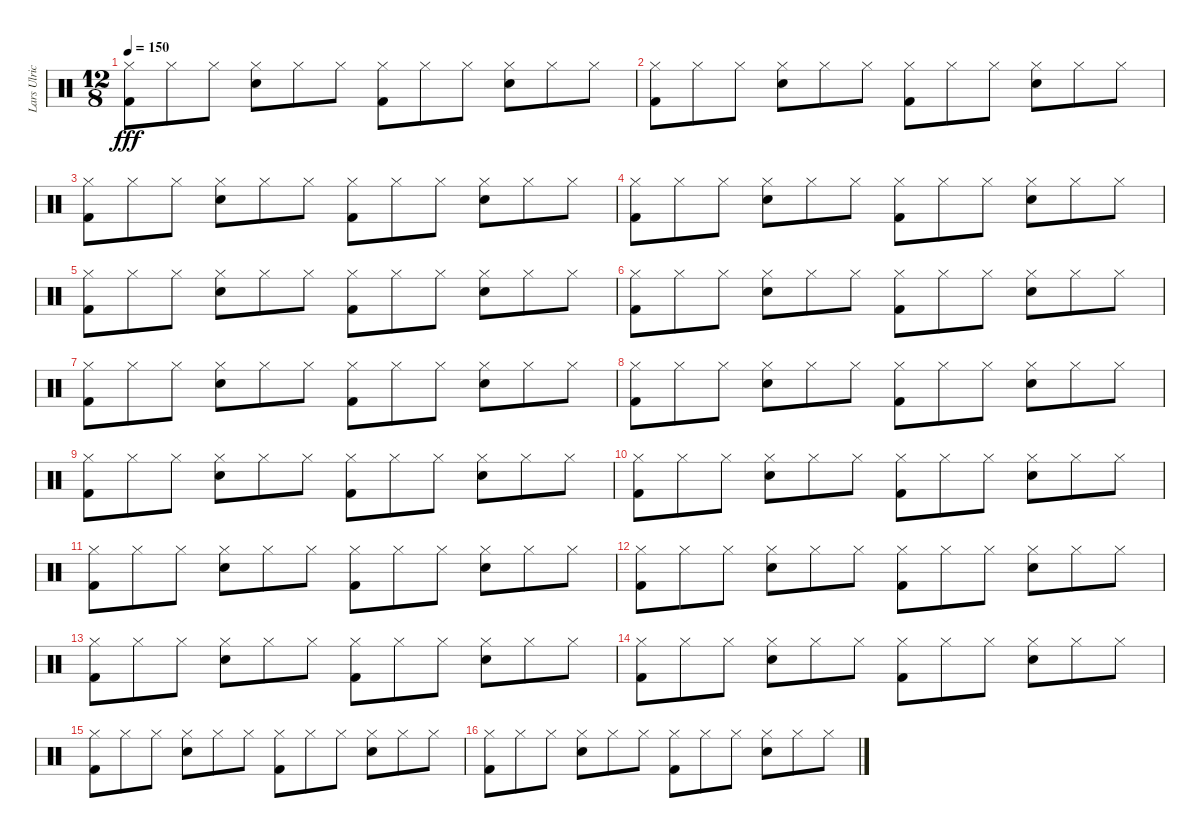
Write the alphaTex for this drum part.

\track ("Lars Ulrich (Drums)" "Lars Ulric") {instrument percussion}
\staff {score}
\articulation defaults
\ts (12 8)
\tempo 150
\clef neutral
\ks c
("Hi-Hat (closed)" "Kick (hit) 2").8{dy fff} "Hi-Hat (closed)".8 "Hi-Hat (closed)".8 ("Hi-Hat (closed)" "Electric Snare (hit)").8 "Hi-Hat (closed)".8 "Hi-Hat (closed)".8 ("Hi-Hat (closed)" "Kick (hit) 2").8 "Hi-Hat (closed)".8 "Hi-Hat (closed)".8 ("Hi-Hat (closed)" "Electric Snare (hit)").8 "Hi-Hat (closed)".8 "Hi-Hat (closed)".8 |
("Hi-Hat (closed)" "Kick (hit) 2").8 "Hi-Hat (closed)".8 "Hi-Hat (closed)".8 ("Hi-Hat (closed)" "Electric Snare (hit)").8 "Hi-Hat (closed)".8 "Hi-Hat (closed)".8 ("Hi-Hat (closed)" "Kick (hit) 2").8 "Hi-Hat (closed)".8 "Hi-Hat (closed)".8 ("Hi-Hat (closed)" "Electric Snare (hit)").8 "Hi-Hat (closed)".8 "Hi-Hat (closed)".8 |
("Hi-Hat (closed)" "Kick (hit) 2").8 "Hi-Hat (closed)".8 "Hi-Hat (closed)".8 ("Hi-Hat (closed)" "Electric Snare (hit)").8 "Hi-Hat (closed)".8 "Hi-Hat (closed)".8 ("Hi-Hat (closed)" "Kick (hit) 2").8 "Hi-Hat (closed)".8 "Hi-Hat (closed)".8 ("Hi-Hat (closed)" "Electric Snare (hit)").8 "Hi-Hat (closed)".8 "Hi-Hat (closed)".8 |
("Hi-Hat (closed)" "Kick (hit) 2").8 "Hi-Hat (closed)".8 "Hi-Hat (closed)".8 ("Hi-Hat (closed)" "Electric Snare (hit)").8 "Hi-Hat (closed)".8 "Hi-Hat (closed)".8 ("Hi-Hat (closed)" "Kick (hit) 2").8 "Hi-Hat (closed)".8 "Hi-Hat (closed)".8 ("Hi-Hat (closed)" "Electric Snare (hit)").8 "Hi-Hat (closed)".8 "Hi-Hat (closed)".8 |
("Hi-Hat (closed)" "Kick (hit) 2").8 "Hi-Hat (closed)".8 "Hi-Hat (closed)".8 ("Hi-Hat (closed)" "Electric Snare (hit)").8 "Hi-Hat (closed)".8 "Hi-Hat (closed)".8 ("Hi-Hat (closed)" "Kick (hit) 2").8 "Hi-Hat (closed)".8 "Hi-Hat (closed)".8 ("Hi-Hat (closed)" "Electric Snare (hit)").8 "Hi-Hat (closed)".8 "Hi-Hat (closed)".8 |
("Hi-Hat (closed)" "Kick (hit) 2").8 "Hi-Hat (closed)".8 "Hi-Hat (closed)".8 ("Hi-Hat (closed)" "Electric Snare (hit)").8 "Hi-Hat (closed)".8 "Hi-Hat (closed)".8 ("Hi-Hat (closed)" "Kick (hit) 2").8 "Hi-Hat (closed)".8 "Hi-Hat (closed)".8 ("Hi-Hat (closed)" "Electric Snare (hit)").8 "Hi-Hat (closed)".8 "Hi-Hat (closed)".8 |
("Hi-Hat (closed)" "Kick (hit) 2").8 "Hi-Hat (closed)".8 "Hi-Hat (closed)".8 ("Hi-Hat (closed)" "Electric Snare (hit)").8 "Hi-Hat (closed)".8 "Hi-Hat (closed)".8 ("Hi-Hat (closed)" "Kick (hit) 2").8 "Hi-Hat (closed)".8 "Hi-Hat (closed)".8 ("Hi-Hat (closed)" "Electric Snare (hit)").8 "Hi-Hat (closed)".8 "Hi-Hat (closed)".8 |
("Hi-Hat (closed)" "Kick (hit) 2").8 "Hi-Hat (closed)".8 "Hi-Hat (closed)".8 ("Hi-Hat (closed)" "Electric Snare (hit)").8 "Hi-Hat (closed)".8 "Hi-Hat (closed)".8 ("Hi-Hat (closed)" "Kick (hit) 2").8 "Hi-Hat (closed)".8 "Hi-Hat (closed)".8 ("Hi-Hat (closed)" "Electric Snare (hit)").8 "Hi-Hat (closed)".8 "Hi-Hat (closed)".8 |
("Hi-Hat (closed)" "Kick (hit) 2").8 "Hi-Hat (closed)".8 "Hi-Hat (closed)".8 ("Hi-Hat (closed)" "Electric Snare (hit)").8 "Hi-Hat (closed)".8 "Hi-Hat (closed)".8 ("Hi-Hat (closed)" "Kick (hit) 2").8 "Hi-Hat (closed)".8 "Hi-Hat (closed)".8 ("Hi-Hat (closed)" "Electric Snare (hit)").8 "Hi-Hat (closed)".8 "Hi-Hat (closed)".8 |
("Hi-Hat (closed)" "Kick (hit) 2").8 "Hi-Hat (closed)".8 "Hi-Hat (closed)".8 ("Hi-Hat (closed)" "Electric Snare (hit)").8 "Hi-Hat (closed)".8 "Hi-Hat (closed)".8 ("Hi-Hat (closed)" "Kick (hit) 2").8 "Hi-Hat (closed)".8 "Hi-Hat (closed)".8 ("Hi-Hat (closed)" "Electric Snare (hit)").8 "Hi-Hat (closed)".8 "Hi-Hat (closed)".8 |
("Hi-Hat (closed)" "Kick (hit) 2").8 "Hi-Hat (closed)".8 "Hi-Hat (closed)".8 ("Hi-Hat (closed)" "Electric Snare (hit)").8 "Hi-Hat (closed)".8 "Hi-Hat (closed)".8 ("Hi-Hat (closed)" "Kick (hit) 2").8 "Hi-Hat (closed)".8 "Hi-Hat (closed)".8 ("Hi-Hat (closed)" "Electric Snare (hit)").8 "Hi-Hat (closed)".8 "Hi-Hat (closed)".8 |
("Hi-Hat (closed)" "Kick (hit) 2").8 "Hi-Hat (closed)".8 "Hi-Hat (closed)".8 ("Hi-Hat (closed)" "Electric Snare (hit)").8 "Hi-Hat (closed)".8 "Hi-Hat (closed)".8 ("Hi-Hat (closed)" "Kick (hit) 2").8 "Hi-Hat (closed)".8 "Hi-Hat (closed)".8 ("Hi-Hat (closed)" "Electric Snare (hit)").8 "Hi-Hat (closed)".8 "Hi-Hat (closed)".8 |
("Hi-Hat (closed)" "Kick (hit) 2").8 "Hi-Hat (closed)".8 "Hi-Hat (closed)".8 ("Hi-Hat (closed)" "Electric Snare (hit)").8 "Hi-Hat (closed)".8 "Hi-Hat (closed)".8 ("Hi-Hat (closed)" "Kick (hit) 2").8 "Hi-Hat (closed)".8 "Hi-Hat (closed)".8 ("Hi-Hat (closed)" "Electric Snare (hit)").8 "Hi-Hat (closed)".8 "Hi-Hat (closed)".8 |
("Hi-Hat (closed)" "Kick (hit) 2").8 "Hi-Hat (closed)".8 "Hi-Hat (closed)".8 ("Hi-Hat (closed)" "Electric Snare (hit)").8 "Hi-Hat (closed)".8 "Hi-Hat (closed)".8 ("Hi-Hat (closed)" "Kick (hit) 2").8 "Hi-Hat (closed)".8 "Hi-Hat (closed)".8 ("Hi-Hat (closed)" "Electric Snare (hit)").8 "Hi-Hat (closed)".8 "Hi-Hat (closed)".8 |
("Hi-Hat (closed)" "Kick (hit) 2").8 "Hi-Hat (closed)".8 "Hi-Hat (closed)".8 ("Hi-Hat (closed)" "Electric Snare (hit)").8 "Hi-Hat (closed)".8 "Hi-Hat (closed)".8 ("Hi-Hat (closed)" "Kick (hit) 2").8 "Hi-Hat (closed)".8 "Hi-Hat (closed)".8 ("Hi-Hat (closed)" "Electric Snare (hit)").8 "Hi-Hat (closed)".8 "Hi-Hat (closed)".8 |
("Hi-Hat (closed)" "Kick (hit) 2").8 "Hi-Hat (closed)".8 "Hi-Hat (closed)".8 ("Hi-Hat (closed)" "Electric Snare (hit)").8 "Hi-Hat (closed)".8 "Hi-Hat (closed)".8 ("Hi-Hat (closed)" "Kick (hit) 2").8 "Hi-Hat (closed)".8 "Hi-Hat (closed)".8 ("Hi-Hat (closed)" "Electric Snare (hit)").8 "Hi-Hat (closed)".8 "Hi-Hat (closed)".8
